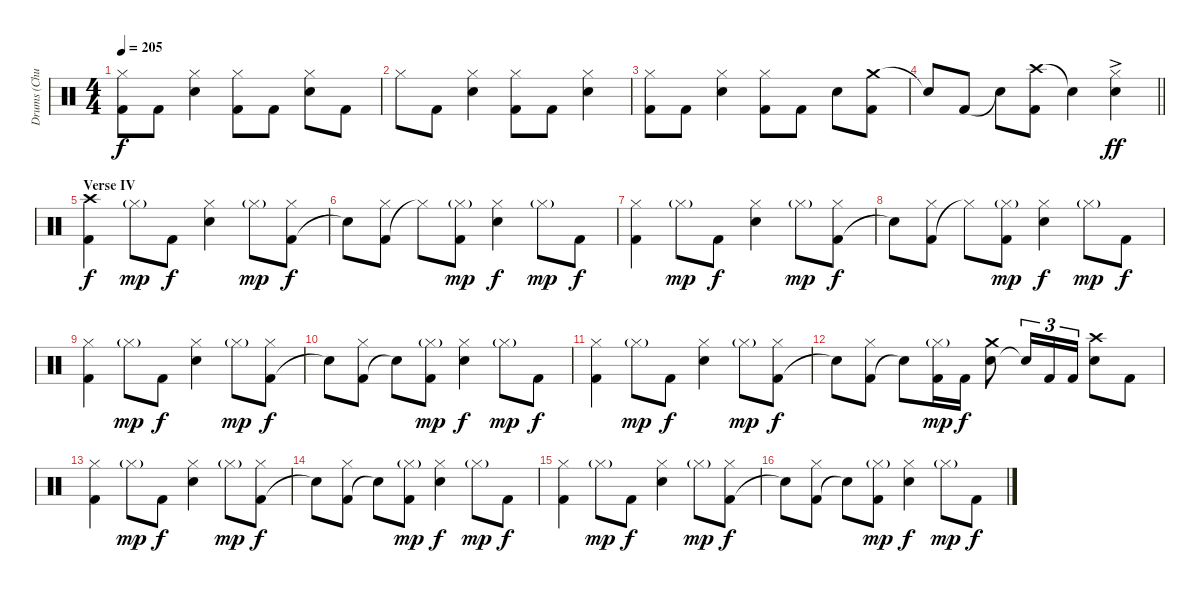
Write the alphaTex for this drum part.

\track ("Drums (Chuck Behler)" "Drums (Chu") {instrument percussion}
\staff {score}
\articulation defaults
\ts (4 4)
\tempo 205
\clef neutral
\ks c
("Hi-Hat (closed)" "Kick (hit) 2").8{dy f} "Kick (hit) 2".8 ("Hi-Hat (closed)" "Electric Snare (hit)").4 ("Hi-Hat (closed)" "Kick (hit) 2").8 "Kick (hit) 2".8 ("Hi-Hat (closed)" "Electric Snare (hit)").8 "Kick (hit) 2".8 |
"Hi-Hat (closed)".8 "Kick (hit) 2".8 ("Hi-Hat (closed)" "Electric Snare (hit)").4 ("Hi-Hat (closed)" "Kick (hit) 2").8 "Kick (hit) 2".8 ("Hi-Hat (closed)" "Electric Snare (hit)").4 |
("Hi-Hat (closed)" "Kick (hit) 2").8 "Kick (hit) 2".8 ("Hi-Hat (closed)" "Electric Snare (hit)").4 ("Hi-Hat (closed)" "Kick (hit) 2").8 "Kick (hit) 2".8 "Electric Snare (hit)".8 ("Crash medium (hit)" "Kick (hit) 2").8 |
\barLineRight lightlight "Snare (hit)"{t}.8 "Kick (hit) 2".8 "Snare (hit)"{t}.8
("Crash high (hit)" "Kick (hit) 2").8 "Snare (hit)"{t}.4 ("Electric Snare (hit)" "Hi-Hat (closed)"{ac}).4{dy ff} |
\section ("" "Verse IV")
("Crash high (hit)" "Kick (hit) 2").4{dy f} "Hi-Hat (closed)"{g}.8{dy mp} "Kick (hit) 2".8{dy f} ("Electric Snare (hit)" "Hi-Hat (closed)").4 "Hi-Hat (closed)"{g}.8{dy mp} ("Kick (hit) 2" "Hi-Hat (closed)").8{dy f} |
"Snare (hit)"{t}.8 ("Kick (hit) 2" "Hi-Hat (closed)").8 "Hi-Hat (closed)"{t}.8 ("Kick (hit) 2" "Hi-Hat (closed)"{g}).8{dy mp} ("Electric Snare (hit)" "Hi-Hat (closed)").4{dy f} "Hi-Hat (closed)"{g}.8{dy mp} "Kick (hit) 2".8{dy f} |
("Hi-Hat (closed)" "Kick (hit) 2").4 "Hi-Hat (closed)"{g}.8{dy mp} "Kick (hit) 2".8{dy f} ("Electric Snare (hit)" "Hi-Hat (closed)").4 "Hi-Hat (closed)"{g}.8{dy mp} ("Kick (hit) 2" "Hi-Hat (closed)").8{dy f} |
"Snare (hit)"{t}.8 ("Kick (hit) 2" "Hi-Hat (closed)").8 "Hi-Hat (closed)"{t}.8 ("Kick (hit) 2" "Hi-Hat (closed)"{g}).8{dy mp} ("Electric Snare (hit)" "Hi-Hat (closed)").4{dy f} "Hi-Hat (closed)"{g}.8{dy mp} "Kick (hit) 2".8{dy f} |
("Hi-Hat (closed)" "Kick (hit) 2").4 "Hi-Hat (closed)"{g}.8{dy mp} "Kick (hit) 2".8{dy f} ("Electric Snare (hit)" "Hi-Hat (closed)").4 "Hi-Hat (closed)"{g}.8{dy mp} ("Kick (hit) 2" "Hi-Hat (closed)").8{dy f} |
"Snare (hit)"{t}.8 ("Kick (hit) 2" "Hi-Hat (closed)").8 "Snare (hit)"{t}.8 ("Kick (hit) 2" "Hi-Hat (closed)"{g}).8{dy mp} ("Electric Snare (hit)" "Hi-Hat (closed)").4{dy f} "Hi-Hat (closed)"{g}.8{dy mp} "Kick (hit) 2".8{dy f} |
("Hi-Hat (closed)" "Kick (hit) 2").4 "Hi-Hat (closed)"{g}.8{dy mp} "Kick (hit) 2".8{dy f} ("Electric Snare (hit)" "Hi-Hat (closed)").4 "Hi-Hat (closed)"{g}.8{dy mp} ("Kick (hit) 2" "Hi-Hat (closed)").8{dy f} |
"Snare (hit)"{t}.8 ("Kick (hit) 2" "Hi-Hat (closed)").8 "Snare (hit)"{t}.8 ("Kick (hit) 2" "Hi-Hat (closed)"{g}).16{dy mp} "Kick (hit) 2".16{dy f} ("Electric Snare (hit)" "Crash medium (hit)").8 "Snare (hit)"{t}.16{tu (3 2)} "Kick (hit) 2".16{tu (3 2)} "Kick (hit) 2".16{tu (3 2)} ("Electric Snare (hit)" "Crash high (hit)").8 "Kick (hit) 2".8 |
("Hi-Hat (closed)" "Kick (hit) 2").4 "Hi-Hat (closed)"{g}.8{dy mp} "Kick (hit) 2".8{dy f} ("Electric Snare (hit)" "Hi-Hat (closed)").4 "Hi-Hat (closed)"{g}.8{dy mp} ("Kick (hit) 2" "Hi-Hat (closed)").8{dy f} |
"Snare (hit)"{t}.8 ("Kick (hit) 2" "Hi-Hat (closed)").8 "Snare (hit)"{t}.8 ("Kick (hit) 2" "Hi-Hat (closed)"{g}).8{dy mp} ("Electric Snare (hit)" "Hi-Hat (closed)").4{dy f} "Hi-Hat (closed)"{g}.8{dy mp} "Kick (hit) 2".8{dy f} |
("Hi-Hat (closed)" "Kick (hit) 2").4 "Hi-Hat (closed)"{g}.8{dy mp} "Kick (hit) 2".8{dy f} ("Electric Snare (hit)" "Hi-Hat (closed)").4 "Hi-Hat (closed)"{g}.8{dy mp} ("Kick (hit) 2" "Hi-Hat (closed)").8{dy f} |
"Snare (hit)"{t}.8 ("Kick (hit) 2" "Hi-Hat (closed)").8 "Snare (hit)"{t}.8 ("Kick (hit) 2" "Hi-Hat (closed)"{g}).8{dy mp} ("Electric Snare (hit)" "Hi-Hat (closed)").4{dy f} "Hi-Hat (closed)"{g}.8{dy mp} "Kick (hit) 2".8{dy f}
